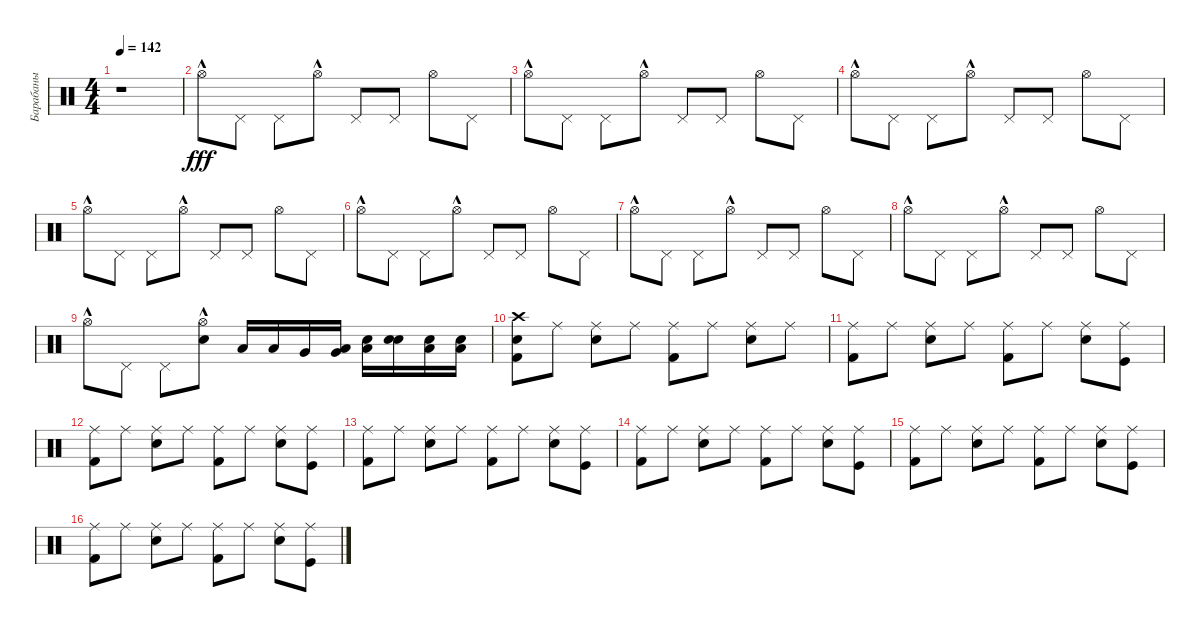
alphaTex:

\track ("Барабаны" "Барабаны") {instrument percussion}
\staff {score}
\articulation defaults
\ts (4 4)
\tempo 142
\clef neutral
\ks c
r.1{dy fff} |
"Hi-Hat (open)"{hac}.8 "Pedal Hi-Hat (hit)".8 "Pedal Hi-Hat (hit)".8 "Hi-Hat (open)"{hac}.8 "Pedal Hi-Hat (hit)".8 "Pedal Hi-Hat (hit)".8 "Hi-Hat (open)".8 "Pedal Hi-Hat (hit)".8 |
"Hi-Hat (open)"{hac}.8 "Pedal Hi-Hat (hit)".8 "Pedal Hi-Hat (hit)".8 "Hi-Hat (open)"{hac}.8 "Pedal Hi-Hat (hit)".8 "Pedal Hi-Hat (hit)".8 "Hi-Hat (open)".8 "Pedal Hi-Hat (hit)".8 |
"Hi-Hat (open)"{hac}.8 "Pedal Hi-Hat (hit)".8 "Pedal Hi-Hat (hit)".8 "Hi-Hat (open)"{hac}.8 "Pedal Hi-Hat (hit)".8 "Pedal Hi-Hat (hit)".8 "Hi-Hat (open)".8 "Pedal Hi-Hat (hit)".8 |
"Hi-Hat (open)"{hac}.8 "Pedal Hi-Hat (hit)".8 "Pedal Hi-Hat (hit)".8 "Hi-Hat (open)"{hac}.8 "Pedal Hi-Hat (hit)".8 "Pedal Hi-Hat (hit)".8 "Hi-Hat (open)".8 "Pedal Hi-Hat (hit)".8 |
"Hi-Hat (open)"{hac}.8 "Pedal Hi-Hat (hit)".8 "Pedal Hi-Hat (hit)".8 "Hi-Hat (open)"{hac}.8 "Pedal Hi-Hat (hit)".8 "Pedal Hi-Hat (hit)".8 "Hi-Hat (open)".8 "Pedal Hi-Hat (hit)".8 |
"Hi-Hat (open)"{hac}.8 "Pedal Hi-Hat (hit)".8 "Pedal Hi-Hat (hit)".8 "Hi-Hat (open)"{hac}.8 "Pedal Hi-Hat (hit)".8 "Pedal Hi-Hat (hit)".8 "Hi-Hat (open)".8 "Pedal Hi-Hat (hit)".8 |
"Hi-Hat (open)"{hac}.8 "Pedal Hi-Hat (hit)".8 "Pedal Hi-Hat (hit)".8 "Hi-Hat (open)"{hac}.8 "Pedal Hi-Hat (hit)".8 "Pedal Hi-Hat (hit)".8 "Hi-Hat (open)".8 "Pedal Hi-Hat (hit)".8 |
"Hi-Hat (open)"{hac}.8 "Pedal Hi-Hat (hit)".8 "Pedal Hi-Hat (hit)".8 ("Snare (hit) 2" "Hi-Hat (open)"{hac}).8 "Low Tom (hit)".16 "Low Tom (hit)".16 "Very Low Tom (hit)".16 ("Very Low Tom (hit)" "Low Tom (hit)").16 ("Low Tom (hit)" "Snare (hit) 2").16 ("Snare (hit) 2" "Electric Snare (hit)").16 ("Low Tom (hit)" "Snare (hit) 2").16 ("Low Tom (hit)" "Snare (hit) 2").16 |
("Crash high (hit)" "Snare (hit) 2" "Kick (hit) 2").8 "Ride (middle)".8 ("Snare (hit) 2" "Ride (middle)").8 "Ride (middle)".8 ("Ride (middle)" "Kick (hit) 2").8 "Ride (middle)".8 ("Snare (hit) 2" "Ride (middle)").8 "Ride (middle)".8 |
("Ride (middle)" "Kick (hit) 2").8 "Ride (middle)".8 ("Snare (hit) 2" "Ride (middle)").8 "Ride (middle)".8 ("Kick (hit) 2" "Ride (middle)").8 "Ride (middle)".8 ("Snare (hit) 2" "Ride (middle)").8 ("Kick (hit)" "Ride (middle)").8 |
("Ride (middle)" "Kick (hit) 2").8 "Ride (middle)".8 ("Snare (hit) 2" "Ride (middle)").8 "Ride (middle)".8 ("Kick (hit) 2" "Ride (middle)").8 "Ride (middle)".8 ("Snare (hit) 2" "Ride (middle)").8 ("Kick (hit)" "Ride (middle)").8 |
("Ride (middle)" "Kick (hit) 2").8 "Ride (middle)".8 ("Snare (hit) 2" "Ride (middle)").8 "Ride (middle)".8 ("Kick (hit) 2" "Ride (middle)").8 "Ride (middle)".8 ("Snare (hit) 2" "Ride (middle)").8 ("Kick (hit)" "Ride (middle)").8 |
("Ride (middle)" "Kick (hit) 2").8 "Ride (middle)".8 ("Snare (hit) 2" "Ride (middle)").8 "Ride (middle)".8 ("Kick (hit) 2" "Ride (middle)").8 "Ride (middle)".8 ("Snare (hit) 2" "Ride (middle)").8 ("Kick (hit)" "Ride (middle)").8 |
("Ride (middle)" "Kick (hit) 2").8 "Ride (middle)".8 ("Snare (hit) 2" "Ride (middle)").8 "Ride (middle)".8 ("Kick (hit) 2" "Ride (middle)").8 "Ride (middle)".8 ("Snare (hit) 2" "Ride (middle)").8 ("Kick (hit)" "Ride (middle)").8 |
("Ride (middle)" "Kick (hit) 2").8 "Ride (middle)".8 ("Snare (hit) 2" "Ride (middle)").8 "Ride (middle)".8 ("Kick (hit) 2" "Ride (middle)").8 "Ride (middle)".8 ("Snare (hit) 2" "Ride (middle)").8 ("Kick (hit)" "Ride (middle)").8
